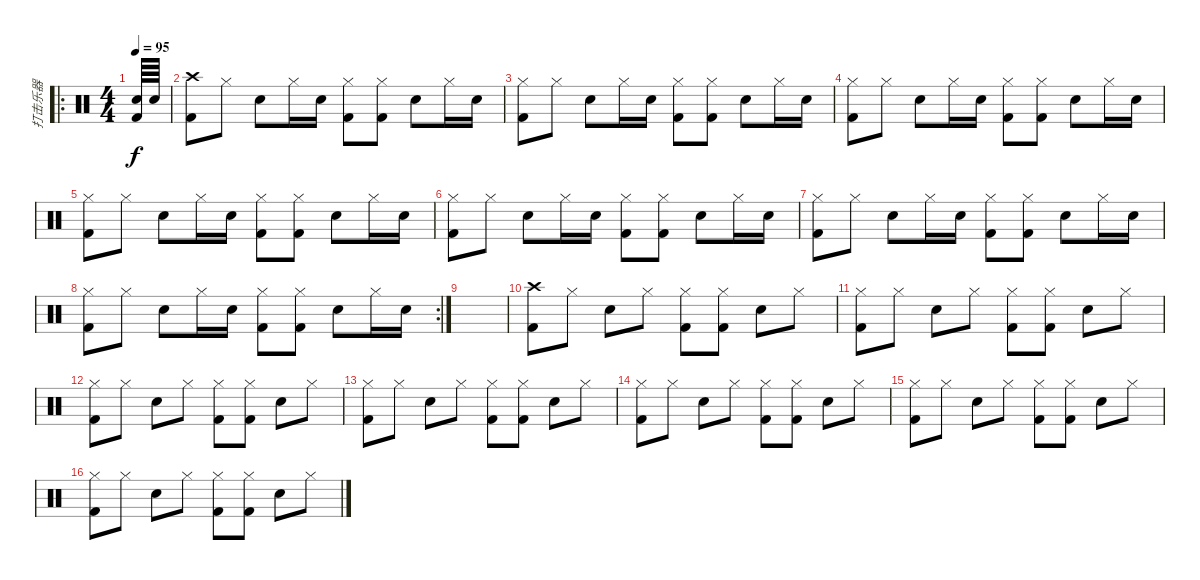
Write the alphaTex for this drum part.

\track ("打击乐器" "打击乐器") {instrument percussion}
\staff {score}
\articulation defaults
\ro
\ts (4 4)
\tempo 95
\clef neutral
\ks c
("Snare (hit) 2" "Kick (hit) 2").64{dy f} "Snare (hit) 2".64 |
("Crash high (hit)" "Kick (hit) 2").8 "Hi-Hat (closed)".8 "Snare (hit) 2".8 "Hi-Hat (closed)".16 "Snare (hit) 2".16 ("Hi-Hat (closed)" "Kick (hit) 2").8 ("Hi-Hat (closed)" "Kick (hit) 2").8 "Snare (hit) 2".8 "Hi-Hat (closed)".16 "Snare (hit) 2".16 |
("Hi-Hat (closed)" "Kick (hit) 2").8 "Hi-Hat (closed)".8 "Snare (hit) 2".8 "Hi-Hat (closed)".16 "Snare (hit) 2".16 ("Hi-Hat (closed)" "Kick (hit) 2").8 ("Hi-Hat (closed)" "Kick (hit) 2").8 "Snare (hit) 2".8 "Hi-Hat (closed)".16 "Snare (hit) 2".16 |
("Hi-Hat (closed)" "Kick (hit) 2").8 "Hi-Hat (closed)".8 "Snare (hit) 2".8 "Hi-Hat (closed)".16 "Snare (hit) 2".16 ("Hi-Hat (closed)" "Kick (hit) 2").8 ("Hi-Hat (closed)" "Kick (hit) 2").8 "Snare (hit) 2".8 "Hi-Hat (closed)".16 "Snare (hit) 2".16 |
("Hi-Hat (closed)" "Kick (hit) 2").8 "Hi-Hat (closed)".8 "Snare (hit) 2".8 "Hi-Hat (closed)".16 "Snare (hit) 2".16 ("Hi-Hat (closed)" "Kick (hit) 2").8 ("Hi-Hat (closed)" "Kick (hit) 2").8 "Snare (hit) 2".8 "Hi-Hat (closed)".16 "Snare (hit) 2".16 |
("Hi-Hat (closed)" "Kick (hit) 2").8 "Hi-Hat (closed)".8 "Snare (hit) 2".8 "Hi-Hat (closed)".16 "Snare (hit) 2".16 ("Hi-Hat (closed)" "Kick (hit) 2").8 ("Hi-Hat (closed)" "Kick (hit) 2").8 "Snare (hit) 2".8 "Hi-Hat (closed)".16 "Snare (hit) 2".16 |
("Hi-Hat (closed)" "Kick (hit) 2").8 "Hi-Hat (closed)".8 "Snare (hit) 2".8 "Hi-Hat (closed)".16 "Snare (hit) 2".16 ("Hi-Hat (closed)" "Kick (hit) 2").8 ("Hi-Hat (closed)" "Kick (hit) 2").8 "Snare (hit) 2".8 "Hi-Hat (closed)".16 "Snare (hit) 2".16 |
\rc 2
("Hi-Hat (closed)" "Kick (hit) 2").8 "Hi-Hat (closed)".8 "Snare (hit) 2".8 "Hi-Hat (closed)".16 "Snare (hit) 2".16 ("Hi-Hat (closed)" "Kick (hit) 2").8 ("Hi-Hat (closed)" "Kick (hit) 2").8 "Snare (hit) 2".8 "Hi-Hat (closed)".16 "Snare (hit) 2".16 |
|
("Crash high (hit)" "Kick (hit) 2").8 "Hi-Hat (closed)".8 "Snare (hit) 2".8 "Hi-Hat (closed)".8 ("Hi-Hat (closed)" "Kick (hit) 2").8 ("Hi-Hat (closed)" "Kick (hit) 2").8 "Snare (hit) 2".8 "Hi-Hat (closed)".8 |
("Hi-Hat (closed)" "Kick (hit) 2").8 "Hi-Hat (closed)".8 "Snare (hit) 2".8 "Hi-Hat (closed)".8 ("Hi-Hat (closed)" "Kick (hit) 2").8 ("Hi-Hat (closed)" "Kick (hit) 2").8 "Snare (hit) 2".8 "Hi-Hat (closed)".8 |
("Hi-Hat (closed)" "Kick (hit) 2").8 "Hi-Hat (closed)".8 "Snare (hit) 2".8 "Hi-Hat (closed)".8 ("Hi-Hat (closed)" "Kick (hit) 2").8 ("Hi-Hat (closed)" "Kick (hit) 2").8 "Snare (hit) 2".8 "Hi-Hat (closed)".8 |
("Hi-Hat (closed)" "Kick (hit) 2").8 "Hi-Hat (closed)".8 "Snare (hit) 2".8 "Hi-Hat (closed)".8 ("Hi-Hat (closed)" "Kick (hit) 2").8 ("Hi-Hat (closed)" "Kick (hit) 2").8 "Snare (hit) 2".8 "Hi-Hat (closed)".8 |
("Hi-Hat (closed)" "Kick (hit) 2").8 "Hi-Hat (closed)".8 "Snare (hit) 2".8 "Hi-Hat (closed)".8 ("Hi-Hat (closed)" "Kick (hit) 2").8 ("Hi-Hat (closed)" "Kick (hit) 2").8 "Snare (hit) 2".8 "Hi-Hat (closed)".8 |
("Hi-Hat (closed)" "Kick (hit) 2").8 "Hi-Hat (closed)".8 "Snare (hit) 2".8 "Hi-Hat (closed)".8 ("Hi-Hat (closed)" "Kick (hit) 2").8 ("Hi-Hat (closed)" "Kick (hit) 2").8 "Snare (hit) 2".8 "Hi-Hat (closed)".8 |
("Hi-Hat (closed)" "Kick (hit) 2").8 "Hi-Hat (closed)".8 "Snare (hit) 2".8 "Hi-Hat (closed)".8 ("Hi-Hat (closed)" "Kick (hit) 2").8 ("Hi-Hat (closed)" "Kick (hit) 2").8 "Snare (hit) 2".8 "Hi-Hat (closed)".8
